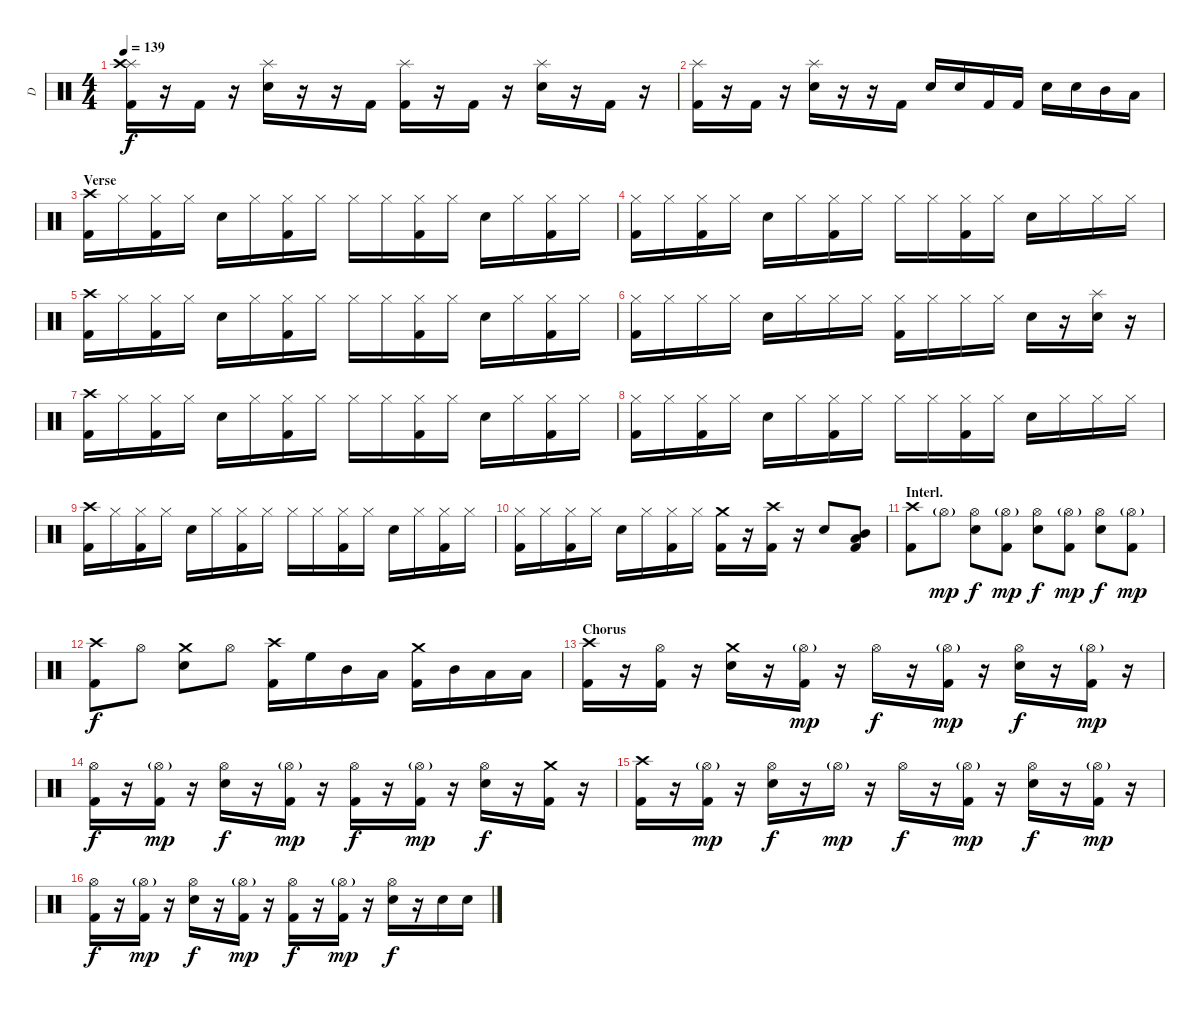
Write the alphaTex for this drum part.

\track ("D" "D") {instrument percussion}
\staff {score}
\articulation defaults
\ts (4 4)
\tempo 139
\clef neutral
\ks c
("Splash (hit)" "Crash high (hit)" "Kick (hit) 2").16{dy f} r.16 "Kick (hit) 2".16 r.16 ("Splash (hit)" "Electric Snare (hit)").16 r.16 r.16 "Kick (hit) 2".16 ("Splash (hit)" "Kick (hit) 2").16 r.16 "Kick (hit) 2".16 r.16 ("Splash (hit)" "Electric Snare (hit)").16 r.16 "Kick (hit) 2".16 r.16 |
("Splash (hit)" "Kick (hit) 2").16 r.16 "Kick (hit) 2".16 r.16 ("Splash (hit)" "Electric Snare (hit)").16 r.16 r.16 "Kick (hit) 2".16 "Electric Snare (hit)".16 "Electric Snare (hit)".16 "Kick (hit) 2".16 "Kick (hit) 2".16 "Electric Snare (hit)".16 "Electric Snare (hit)".16 "Mid Tom (hit)".16 "Low Tom (hit)".16 |
\section ("" "Verse")
("Crash high (hit)" "Kick (hit) 2").16 "Hi-Hat (closed)".16 ("Hi-Hat (closed)" "Kick (hit) 2").16 "Hi-Hat (closed)".16 "Electric Snare (hit)".16 "Hi-Hat (closed)".16 ("Hi-Hat (closed)" "Kick (hit) 2").16 "Hi-Hat (closed)".16 "Hi-Hat (closed)".16 "Hi-Hat (closed)".16 ("Hi-Hat (closed)" "Kick (hit) 2").16 "Hi-Hat (closed)".16 "Electric Snare (hit)".16 "Hi-Hat (closed)".16 ("Hi-Hat (closed)" "Kick (hit) 2").16 "Hi-Hat (closed)".16 |
("Hi-Hat (closed)" "Kick (hit) 2").16 "Hi-Hat (closed)".16 ("Hi-Hat (closed)" "Kick (hit) 2").16 "Hi-Hat (closed)".16 "Electric Snare (hit)".16 "Hi-Hat (closed)".16 ("Hi-Hat (closed)" "Kick (hit) 2").16 "Hi-Hat (closed)".16 "Hi-Hat (closed)".16 "Hi-Hat (closed)".16 ("Hi-Hat (closed)" "Kick (hit) 2").16 "Hi-Hat (closed)".16 "Electric Snare (hit)".16 "Hi-Hat (closed)".16 "Hi-Hat (closed)".16 "Hi-Hat (closed)".16 |
("Crash high (hit)" "Kick (hit) 2").16 "Hi-Hat (closed)".16 ("Hi-Hat (closed)" "Kick (hit) 2").16 "Hi-Hat (closed)".16 "Electric Snare (hit)".16 "Hi-Hat (closed)".16 ("Hi-Hat (closed)" "Kick (hit) 2").16 "Hi-Hat (closed)".16 "Hi-Hat (closed)".16 "Hi-Hat (closed)".16 ("Hi-Hat (closed)" "Kick (hit) 2").16 "Hi-Hat (closed)".16 "Electric Snare (hit)".16 "Hi-Hat (closed)".16 ("Hi-Hat (closed)" "Kick (hit) 2").16 "Hi-Hat (closed)".16 |
("Hi-Hat (closed)" "Kick (hit) 2").16 "Hi-Hat (closed)".16 "Hi-Hat (closed)".16 "Hi-Hat (closed)".16 "Electric Snare (hit)".16 "Hi-Hat (closed)".16 "Hi-Hat (closed)".16 "Hi-Hat (closed)".16 ("Hi-Hat (closed)" "Kick (hit) 2").16 "Hi-Hat (closed)".16 "Hi-Hat (closed)".16 "Hi-Hat (closed)".16 "Electric Snare (hit)".16 r.16 ("Splash (hit)" "Electric Snare (hit)").16 r.16 |
("Crash high (hit)" "Kick (hit) 2").16 "Hi-Hat (closed)".16 ("Hi-Hat (closed)" "Kick (hit) 2").16 "Hi-Hat (closed)".16 "Electric Snare (hit)".16 "Hi-Hat (closed)".16 ("Hi-Hat (closed)" "Kick (hit) 2").16 "Hi-Hat (closed)".16 "Hi-Hat (closed)".16 "Hi-Hat (closed)".16 ("Hi-Hat (closed)" "Kick (hit) 2").16 "Hi-Hat (closed)".16 "Electric Snare (hit)".16 "Hi-Hat (closed)".16 ("Hi-Hat (closed)" "Kick (hit) 2").16 "Hi-Hat (closed)".16 |
("Hi-Hat (closed)" "Kick (hit) 2").16 "Hi-Hat (closed)".16 ("Hi-Hat (closed)" "Kick (hit) 2").16 "Hi-Hat (closed)".16 "Electric Snare (hit)".16 "Hi-Hat (closed)".16 ("Hi-Hat (closed)" "Kick (hit) 2").16 "Hi-Hat (closed)".16 "Hi-Hat (closed)".16 "Hi-Hat (closed)".16 ("Hi-Hat (closed)" "Kick (hit) 2").16 "Hi-Hat (closed)".16 "Electric Snare (hit)".16 "Hi-Hat (closed)".16 "Hi-Hat (closed)".16 "Hi-Hat (closed)".16 |
("Crash high (hit)" "Kick (hit) 2").16 "Hi-Hat (closed)".16 ("Hi-Hat (closed)" "Kick (hit) 2").16 "Hi-Hat (closed)".16 "Electric Snare (hit)".16 "Hi-Hat (closed)".16 ("Hi-Hat (closed)" "Kick (hit) 2").16 "Hi-Hat (closed)".16 "Hi-Hat (closed)".16 "Hi-Hat (closed)".16 ("Hi-Hat (closed)" "Kick (hit) 2").16 "Hi-Hat (closed)".16 "Electric Snare (hit)".16 "Hi-Hat (closed)".16 ("Hi-Hat (closed)" "Kick (hit) 2").16 "Hi-Hat (closed)".16 |
("Hi-Hat (closed)" "Kick (hit) 2").16 "Hi-Hat (closed)".16 ("Hi-Hat (closed)" "Kick (hit) 2").16 "Hi-Hat (closed)".16 "Electric Snare (hit)".16 "Hi-Hat (closed)".16 ("Hi-Hat (closed)" "Kick (hit) 2").16 "Hi-Hat (closed)".16 ("Crash medium (hit)" "Kick (hit) 2").16 r.16 ("Crash high (hit)" "Kick (hit) 2").16 r.16 "Electric Snare (hit)".8 ("Mid Tom (hit)" "Low Tom (hit)" "Kick (hit) 2").8 |
\section ("" "Interl.")
("Crash high (hit)" "Kick (hit) 2").8 "Hi-Hat (open)"{g}.8{dy mp} ("Hi-Hat (open)" "Electric Snare (hit)").8{dy f} ("Hi-Hat (open)"{g} "Kick (hit) 2").8{dy mp} ("Hi-Hat (open)" "Electric Snare (hit)").8{dy f} ("Hi-Hat (open)"{g} "Kick (hit) 2").8{dy mp} ("Hi-Hat (open)" "Electric Snare (hit)").8{dy f} ("Hi-Hat (open)"{g} "Kick (hit) 2").8{dy mp} |
("Crash high (hit)" "Kick (hit) 2").8{dy f} "Hi-Hat (open)".8 ("Crash medium (hit)" "Electric Snare (hit)").8 "Hi-Hat (open)".8 ("Crash high (hit)" "Kick (hit) 2").16 "High Floor Tom (hit)".16 "Mid Tom (hit)".16 "Low Tom (hit)".16 ("Crash medium (hit)" "Kick (hit) 2").16 "Mid Tom (hit)".16 "Low Tom (hit)".16 "Low Floor Tom (hit)".16 |
\section ("" "Chorus")
("Crash high (hit)" "Kick (hit) 2").16 r.16 ("Hi-Hat (open)" "Kick (hit) 2").16 r.16 ("Crash medium (hit)" "Electric Snare (hit)").16 r.16 ("Hi-Hat (open)"{g} "Kick (hit) 2").16{dy mp} r.16 "Hi-Hat (open)".16{dy f} r.16 ("Hi-Hat (open)"{g} "Kick (hit) 2").16{dy mp} r.16 ("Hi-Hat (open)" "Electric Snare (hit)").16{dy f} r.16 ("Hi-Hat (open)"{g} "Kick (hit) 2").16{dy mp} r.16 |
("Hi-Hat (open)" "Kick (hit) 2").16{dy f} r.16 ("Hi-Hat (open)"{g} "Kick (hit) 2").16{dy mp} r.16 ("Hi-Hat (open)" "Electric Snare (hit)").16{dy f} r.16 ("Hi-Hat (open)"{g} "Kick (hit) 2").16{dy mp} r.16 ("Hi-Hat (open)" "Kick (hit) 2").16{dy f} r.16 ("Hi-Hat (open)"{g} "Kick (hit) 2").16{dy mp} r.16 ("Hi-Hat (open)" "Electric Snare (hit)").16{dy f} r.16 ("Crash medium (hit)" "Kick (hit) 2").16 r.16 |
("Crash high (hit)" "Kick (hit) 2").16 r.16 ("Hi-Hat (open)"{g} "Kick (hit) 2").16{dy mp} r.16 ("Hi-Hat (open)" "Electric Snare (hit)").16{dy f} r.16 "Hi-Hat (open)"{g}.16{dy mp} r.16 "Hi-Hat (open)".16{dy f} r.16 ("Hi-Hat (open)"{g} "Kick (hit) 2").16{dy mp} r.16 ("Hi-Hat (open)" "Electric Snare (hit)").16{dy f} r.16 ("Hi-Hat (open)"{g} "Kick (hit) 2").16{dy mp} r.16 |
("Hi-Hat (open)" "Kick (hit) 2").16{dy f} r.16 ("Hi-Hat (open)"{g} "Kick (hit) 2").16{dy mp} r.16 ("Hi-Hat (open)" "Electric Snare (hit)").16{dy f} r.16 ("Hi-Hat (open)"{g} "Kick (hit) 2").16{dy mp} r.16 ("Hi-Hat (open)" "Kick (hit) 2").16{dy f} r.16 ("Hi-Hat (open)"{g} "Kick (hit) 2").16{dy mp} r.16 ("Hi-Hat (open)" "Electric Snare (hit)").16{dy f} r.16 "Electric Snare (hit)".16 "Electric Snare (hit)".16
